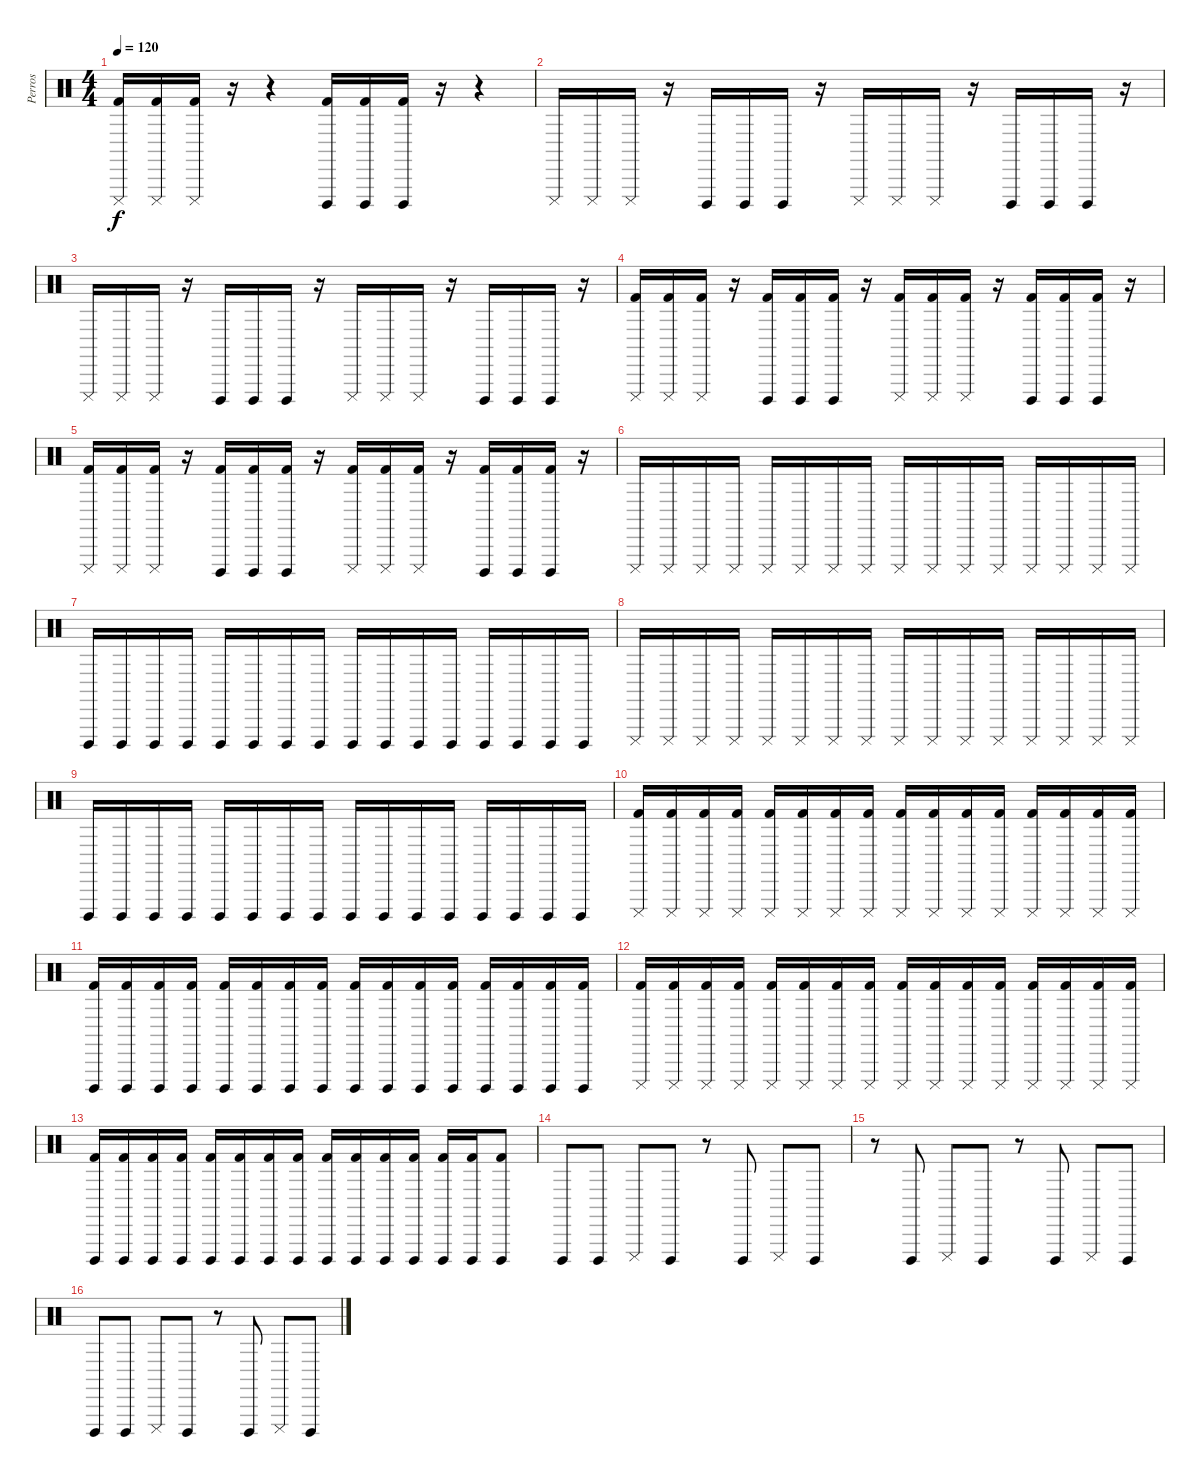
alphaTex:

\track ("Perros" "Perros") {instrument percussion}
\staff {score}
\articulation defaults
\ts (4 4)
\tempo 120
\clef neutral
\ks c
("Cuica (mute)" "Kick (hit) 2").16{dy f} ("Cuica (mute)" "Kick (hit) 2").16 ("Cuica (mute)" "Kick (hit) 2").16 r.16 r.4 ("Cuica (open)" "Kick (hit) 2").16 ("Cuica (open)" "Kick (hit) 2").16 ("Cuica (open)" "Kick (hit) 2").16 r.16 r.4 |
"Cuica (mute)".16 "Cuica (mute)".16 "Cuica (mute)".16 r.16 "Cuica (open)".16 "Cuica (open)".16 "Cuica (open)".16 r.16 "Cuica (mute)".16 "Cuica (mute)".16 "Cuica (mute)".16 r.16 "Cuica (open)".16 "Cuica (open)".16 "Cuica (open)".16 r.16 |
"Cuica (mute)".16 "Cuica (mute)".16 "Cuica (mute)".16 r.16 "Cuica (open)".16 "Cuica (open)".16 "Cuica (open)".16 r.16 "Cuica (mute)".16 "Cuica (mute)".16 "Cuica (mute)".16 r.16 "Cuica (open)".16 "Cuica (open)".16 "Cuica (open)".16 r.16 |
("Cuica (mute)" "Kick (hit) 2").16 ("Cuica (mute)" "Kick (hit) 2").16 ("Cuica (mute)" "Kick (hit) 2").16 r.16 ("Cuica (open)" "Kick (hit) 2").16 ("Cuica (open)" "Kick (hit) 2").16 ("Cuica (open)" "Kick (hit) 2").16 r.16 ("Cuica (mute)" "Kick (hit) 2").16 ("Cuica (mute)" "Kick (hit) 2").16 ("Cuica (mute)" "Kick (hit) 2").16 r.16 ("Cuica (open)" "Kick (hit) 2").16 ("Cuica (open)" "Kick (hit) 2").16 ("Cuica (open)" "Kick (hit) 2").16 r.16 |
("Cuica (mute)" "Kick (hit) 2").16 ("Cuica (mute)" "Kick (hit) 2").16 ("Cuica (mute)" "Kick (hit) 2").16 r.16 ("Cuica (open)" "Kick (hit) 2").16 ("Cuica (open)" "Kick (hit) 2").16 ("Cuica (open)" "Kick (hit) 2").16 r.16 ("Cuica (mute)" "Kick (hit) 2").16 ("Cuica (mute)" "Kick (hit) 2").16 ("Cuica (mute)" "Kick (hit) 2").16 r.16 ("Cuica (open)" "Kick (hit) 2").16 ("Cuica (open)" "Kick (hit) 2").16 ("Cuica (open)" "Kick (hit) 2").16 r.16 |
"Cuica (mute)".16 "Cuica (mute)".16 "Cuica (mute)".16 "Cuica (mute)".16 "Cuica (mute)".16 "Cuica (mute)".16 "Cuica (mute)".16 "Cuica (mute)".16 "Cuica (mute)".16 "Cuica (mute)".16 "Cuica (mute)".16 "Cuica (mute)".16 "Cuica (mute)".16 "Cuica (mute)".16 "Cuica (mute)".16 "Cuica (mute)".16 |
"Cuica (open)".16 "Cuica (open)".16 "Cuica (open)".16 "Cuica (open)".16 "Cuica (open)".16 "Cuica (open)".16 "Cuica (open)".16 "Cuica (open)".16 "Cuica (open)".16 "Cuica (open)".16 "Cuica (open)".16 "Cuica (open)".16 "Cuica (open)".16 "Cuica (open)".16 "Cuica (open)".16 "Cuica (open)".16 |
"Cuica (mute)".16 "Cuica (mute)".16 "Cuica (mute)".16 "Cuica (mute)".16 "Cuica (mute)".16 "Cuica (mute)".16 "Cuica (mute)".16 "Cuica (mute)".16 "Cuica (mute)".16 "Cuica (mute)".16 "Cuica (mute)".16 "Cuica (mute)".16 "Cuica (mute)".16 "Cuica (mute)".16 "Cuica (mute)".16 "Cuica (mute)".16 |
"Cuica (open)".16 "Cuica (open)".16 "Cuica (open)".16 "Cuica (open)".16 "Cuica (open)".16 "Cuica (open)".16 "Cuica (open)".16 "Cuica (open)".16 "Cuica (open)".16 "Cuica (open)".16 "Cuica (open)".16 "Cuica (open)".16 "Cuica (open)".16 "Cuica (open)".16 "Cuica (open)".16 "Cuica (open)".16 |
("Cuica (mute)" "Kick (hit) 2").16 ("Cuica (mute)" "Kick (hit) 2").16 ("Cuica (mute)" "Kick (hit) 2").16 ("Cuica (mute)" "Kick (hit) 2").16 ("Cuica (mute)" "Kick (hit) 2").16 ("Cuica (mute)" "Kick (hit) 2").16 ("Cuica (mute)" "Kick (hit) 2").16 ("Cuica (mute)" "Kick (hit) 2").16 ("Cuica (mute)" "Kick (hit) 2").16 ("Cuica (mute)" "Kick (hit) 2").16 ("Cuica (mute)" "Kick (hit) 2").16 ("Cuica (mute)" "Kick (hit) 2").16 ("Cuica (mute)" "Kick (hit) 2").16 ("Cuica (mute)" "Kick (hit) 2").16 ("Cuica (mute)" "Kick (hit) 2").16 ("Cuica (mute)" "Kick (hit) 2").16 |
("Cuica (open)" "Kick (hit) 2").16 ("Cuica (open)" "Kick (hit) 2").16 ("Cuica (open)" "Kick (hit) 2").16 ("Cuica (open)" "Kick (hit) 2").16 ("Cuica (open)" "Kick (hit) 2").16 ("Cuica (open)" "Kick (hit) 2").16 ("Cuica (open)" "Kick (hit) 2").16 ("Cuica (open)" "Kick (hit) 2").16 ("Cuica (open)" "Kick (hit) 2").16 ("Cuica (open)" "Kick (hit) 2").16 ("Cuica (open)" "Kick (hit) 2").16 ("Cuica (open)" "Kick (hit) 2").16 ("Cuica (open)" "Kick (hit) 2").16 ("Cuica (open)" "Kick (hit) 2").16 ("Cuica (open)" "Kick (hit) 2").16 ("Cuica (open)" "Kick (hit) 2").16 |
("Cuica (mute)" "Kick (hit) 2").16 ("Cuica (mute)" "Kick (hit) 2").16 ("Cuica (mute)" "Kick (hit) 2").16 ("Cuica (mute)" "Kick (hit) 2").16 ("Cuica (mute)" "Kick (hit) 2").16 ("Cuica (mute)" "Kick (hit) 2").16 ("Cuica (mute)" "Kick (hit) 2").16 ("Cuica (mute)" "Kick (hit) 2").16 ("Cuica (mute)" "Kick (hit) 2").16 ("Cuica (mute)" "Kick (hit) 2").16 ("Cuica (mute)" "Kick (hit) 2").16 ("Cuica (mute)" "Kick (hit) 2").16 ("Cuica (mute)" "Kick (hit) 2").16 ("Cuica (mute)" "Kick (hit) 2").16 ("Cuica (mute)" "Kick (hit) 2").16 ("Cuica (mute)" "Kick (hit) 2").16 |
("Cuica (open)" "Kick (hit) 2").16 ("Cuica (open)" "Kick (hit) 2").16 ("Cuica (open)" "Kick (hit) 2").16 ("Cuica (open)" "Kick (hit) 2").16 ("Cuica (open)" "Kick (hit) 2").16 ("Cuica (open)" "Kick (hit) 2").16 ("Cuica (open)" "Kick (hit) 2").16 ("Cuica (open)" "Kick (hit) 2").16 ("Cuica (open)" "Kick (hit) 2").16 ("Cuica (open)" "Kick (hit) 2").16 ("Cuica (open)" "Kick (hit) 2").16 ("Cuica (open)" "Kick (hit) 2").16 ("Cuica (open)" "Kick (hit) 2").16 ("Cuica (open)" "Kick (hit) 2").16 ("Cuica (open)" "Kick (hit) 2").8 |
"Cuica (open)".8 "Cuica (open)".8 "Cuica (mute)".8 "Cuica (open)".8 r.8 "Cuica (open)".8 "Cuica (mute)".8 "Cuica (open)".8 |
r.8 "Cuica (open)".8 "Cuica (mute)".8 "Cuica (open)".8 r.8 "Cuica (open)".8 "Cuica (mute)".8 "Cuica (open)".8 |
"Cuica (open)".8 "Cuica (open)".8 "Cuica (mute)".8 "Cuica (open)".8 r.8 "Cuica (open)".8 "Cuica (mute)".8 "Cuica (open)".8
